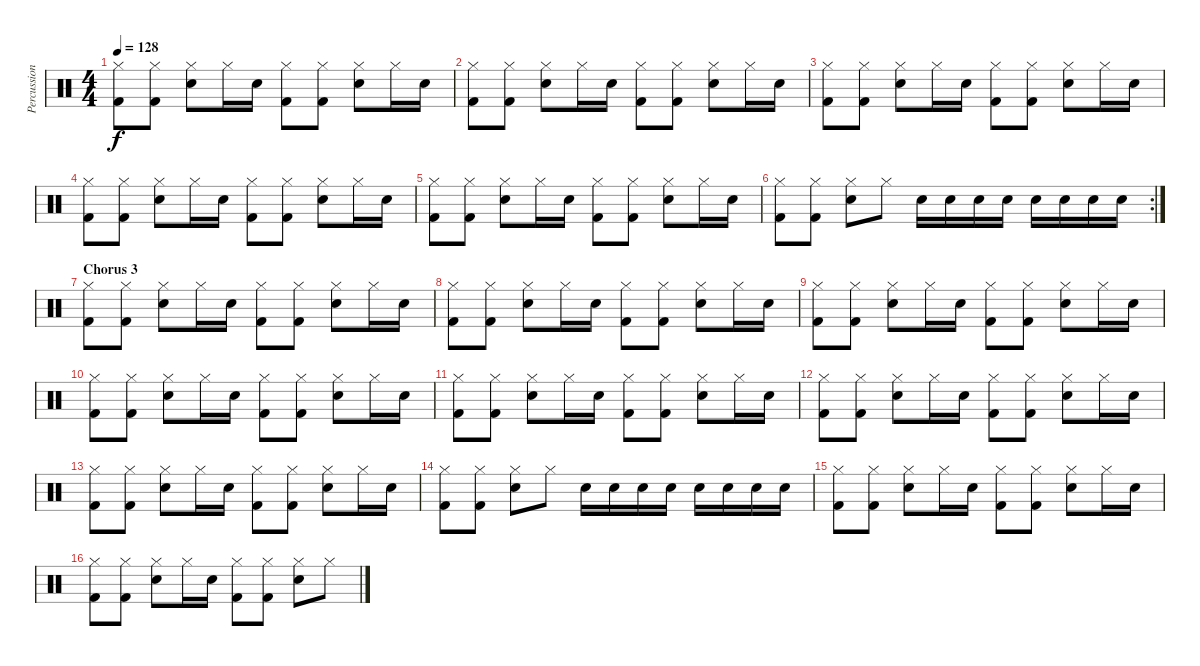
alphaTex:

\track ("Percussion" "Percussion") {instrument percussion}
\staff {score}
\articulation defaults
\ts (4 4)
\tempo 128
\clef neutral
\ks c
("Hi-Hat (closed)" "Kick (hit) 2").8{dy f} ("Hi-Hat (closed)" "Kick (hit) 2").8 ("Hi-Hat (closed)" "Snare (hit) 2").8 "Hi-Hat (closed)".16 "Snare (hit) 2".16 ("Hi-Hat (closed)" "Kick (hit) 2").8 ("Hi-Hat (closed)" "Kick (hit) 2").8 ("Hi-Hat (closed)" "Snare (hit) 2").8 "Hi-Hat (closed)".16 "Snare (hit) 2".16 |
("Hi-Hat (closed)" "Kick (hit) 2").8 ("Hi-Hat (closed)" "Kick (hit) 2").8 ("Hi-Hat (closed)" "Snare (hit) 2").8 "Hi-Hat (closed)".16 "Snare (hit) 2".16 ("Hi-Hat (closed)" "Kick (hit) 2").8 ("Hi-Hat (closed)" "Kick (hit) 2").8 ("Hi-Hat (closed)" "Snare (hit) 2").8 "Hi-Hat (closed)".16 "Snare (hit) 2".16 |
("Hi-Hat (closed)" "Kick (hit) 2").8 ("Hi-Hat (closed)" "Kick (hit) 2").8 ("Hi-Hat (closed)" "Snare (hit) 2").8 "Hi-Hat (closed)".16 "Snare (hit) 2".16 ("Hi-Hat (closed)" "Kick (hit) 2").8 ("Hi-Hat (closed)" "Kick (hit) 2").8 ("Hi-Hat (closed)" "Snare (hit) 2").8 "Hi-Hat (closed)".16 "Snare (hit) 2".16 |
("Hi-Hat (closed)" "Kick (hit) 2").8 ("Hi-Hat (closed)" "Kick (hit) 2").8 ("Hi-Hat (closed)" "Snare (hit) 2").8 "Hi-Hat (closed)".16 "Snare (hit) 2".16 ("Hi-Hat (closed)" "Kick (hit) 2").8 ("Hi-Hat (closed)" "Kick (hit) 2").8 ("Hi-Hat (closed)" "Snare (hit) 2").8 "Hi-Hat (closed)".16 "Snare (hit) 2".16 |
("Hi-Hat (closed)" "Kick (hit) 2").8 ("Hi-Hat (closed)" "Kick (hit) 2").8 ("Hi-Hat (closed)" "Snare (hit) 2").8 "Hi-Hat (closed)".16 "Snare (hit) 2".16 ("Hi-Hat (closed)" "Kick (hit) 2").8 ("Hi-Hat (closed)" "Kick (hit) 2").8 ("Hi-Hat (closed)" "Snare (hit) 2").8 "Hi-Hat (closed)".16 "Snare (hit) 2".16 |
\rc 2
("Hi-Hat (closed)" "Kick (hit) 2").8 ("Hi-Hat (closed)" "Kick (hit) 2").8 ("Hi-Hat (closed)" "Snare (hit) 2").8 "Hi-Hat (closed)".8 "Snare (hit) 2".16 "Snare (hit) 2".16 "Snare (hit) 2".16 "Snare (hit) 2".16 "Snare (hit) 2".16 "Snare (hit) 2".16 "Snare (hit) 2".16 "Snare (hit) 2".16 |
\section ("" "Chorus 3")
("Hi-Hat (closed)" "Kick (hit) 2").8 ("Hi-Hat (closed)" "Kick (hit) 2").8 ("Hi-Hat (closed)" "Snare (hit) 2").8 "Hi-Hat (closed)".16 "Snare (hit) 2".16 ("Hi-Hat (closed)" "Kick (hit) 2").8 ("Hi-Hat (closed)" "Kick (hit) 2").8 ("Hi-Hat (closed)" "Snare (hit) 2").8 "Hi-Hat (closed)".16 "Snare (hit) 2".16 |
("Hi-Hat (closed)" "Kick (hit) 2").8 ("Hi-Hat (closed)" "Kick (hit) 2").8 ("Hi-Hat (closed)" "Snare (hit) 2").8 "Hi-Hat (closed)".16 "Snare (hit) 2".16 ("Hi-Hat (closed)" "Kick (hit) 2").8 ("Hi-Hat (closed)" "Kick (hit) 2").8 ("Hi-Hat (closed)" "Snare (hit) 2").8 "Hi-Hat (closed)".16 "Snare (hit) 2".16 |
("Hi-Hat (closed)" "Kick (hit) 2").8 ("Hi-Hat (closed)" "Kick (hit) 2").8 ("Hi-Hat (closed)" "Snare (hit) 2").8 "Hi-Hat (closed)".16 "Snare (hit) 2".16 ("Hi-Hat (closed)" "Kick (hit) 2").8 ("Hi-Hat (closed)" "Kick (hit) 2").8 ("Hi-Hat (closed)" "Snare (hit) 2").8 "Hi-Hat (closed)".16 "Snare (hit) 2".16 |
("Hi-Hat (closed)" "Kick (hit) 2").8 ("Hi-Hat (closed)" "Kick (hit) 2").8 ("Hi-Hat (closed)" "Snare (hit) 2").8 "Hi-Hat (closed)".16 "Snare (hit) 2".16 ("Hi-Hat (closed)" "Kick (hit) 2").8 ("Hi-Hat (closed)" "Kick (hit) 2").8 ("Hi-Hat (closed)" "Snare (hit) 2").8 "Hi-Hat (closed)".16 "Snare (hit) 2".16 |
("Hi-Hat (closed)" "Kick (hit) 2").8 ("Hi-Hat (closed)" "Kick (hit) 2").8 ("Hi-Hat (closed)" "Snare (hit) 2").8 "Hi-Hat (closed)".16 "Snare (hit) 2".16 ("Hi-Hat (closed)" "Kick (hit) 2").8 ("Hi-Hat (closed)" "Kick (hit) 2").8 ("Hi-Hat (closed)" "Snare (hit) 2").8 "Hi-Hat (closed)".16 "Snare (hit) 2".16 |
("Hi-Hat (closed)" "Kick (hit) 2").8 ("Hi-Hat (closed)" "Kick (hit) 2").8 ("Hi-Hat (closed)" "Snare (hit) 2").8 "Hi-Hat (closed)".16 "Snare (hit) 2".16 ("Hi-Hat (closed)" "Kick (hit) 2").8 ("Hi-Hat (closed)" "Kick (hit) 2").8 ("Hi-Hat (closed)" "Snare (hit) 2").8 "Hi-Hat (closed)".16 "Snare (hit) 2".16 |
("Hi-Hat (closed)" "Kick (hit) 2").8 ("Hi-Hat (closed)" "Kick (hit) 2").8 ("Hi-Hat (closed)" "Snare (hit) 2").8 "Hi-Hat (closed)".16 "Snare (hit) 2".16 ("Hi-Hat (closed)" "Kick (hit) 2").8 ("Hi-Hat (closed)" "Kick (hit) 2").8 ("Hi-Hat (closed)" "Snare (hit) 2").8 "Hi-Hat (closed)".16 "Snare (hit) 2".16 |
("Hi-Hat (closed)" "Kick (hit) 2").8 ("Hi-Hat (closed)" "Kick (hit) 2").8 ("Hi-Hat (closed)" "Snare (hit) 2").8 "Hi-Hat (closed)".8 "Snare (hit) 2".16 "Snare (hit) 2".16 "Snare (hit) 2".16 "Snare (hit) 2".16 "Snare (hit) 2".16 "Snare (hit) 2".16 "Snare (hit) 2".16 "Snare (hit) 2".16 |
("Hi-Hat (closed)" "Kick (hit) 2").8 ("Hi-Hat (closed)" "Kick (hit) 2").8 ("Hi-Hat (closed)" "Snare (hit) 2").8 "Hi-Hat (closed)".16 "Snare (hit) 2".16 ("Hi-Hat (closed)" "Kick (hit) 2").8 ("Hi-Hat (closed)" "Kick (hit) 2").8 ("Hi-Hat (closed)" "Snare (hit) 2").8 "Hi-Hat (closed)".16 "Snare (hit) 2".16 |
("Hi-Hat (closed)" "Kick (hit) 2").8 ("Hi-Hat (closed)" "Kick (hit) 2").8 ("Hi-Hat (closed)" "Snare (hit) 2").8 "Hi-Hat (closed)".16 "Snare (hit) 2".16 ("Hi-Hat (closed)" "Kick (hit) 2").8 ("Hi-Hat (closed)" "Kick (hit) 2").8 ("Hi-Hat (closed)" "Snare (hit) 2").8 "Hi-Hat (closed)".8
